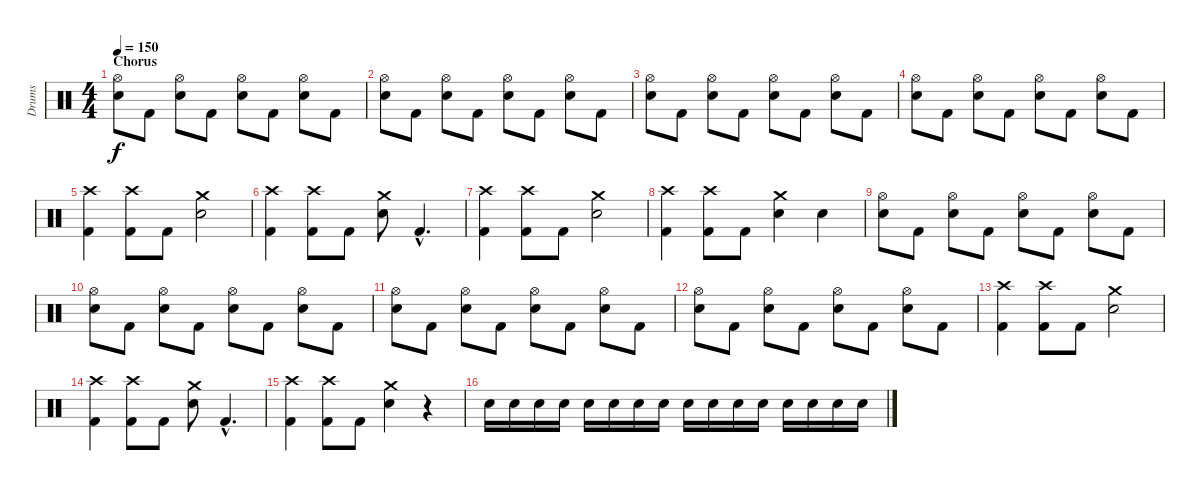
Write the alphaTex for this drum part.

\track ("Drums" "Drums") {instrument percussion}
\staff {score}
\articulation defaults
\ts (4 4)
\section ("" "Chorus")
\tempo 150
\clef neutral
\ks c
("Electric Snare (hit)" "Hi-Hat (open)").8{dy f} "Kick (hit) 2".8 ("Electric Snare (hit)" "Hi-Hat (open)").8 "Kick (hit) 2".8 ("Electric Snare (hit)" "Hi-Hat (open)").8 "Kick (hit) 2".8 ("Electric Snare (hit)" "Hi-Hat (open)").8 "Kick (hit) 2".8 |
("Electric Snare (hit)" "Hi-Hat (open)").8 "Kick (hit) 2".8 ("Electric Snare (hit)" "Hi-Hat (open)").8 "Kick (hit) 2".8 ("Electric Snare (hit)" "Hi-Hat (open)").8 "Kick (hit) 2".8 ("Electric Snare (hit)" "Hi-Hat (open)").8 "Kick (hit) 2".8 |
("Electric Snare (hit)" "Hi-Hat (open)").8 "Kick (hit) 2".8 ("Electric Snare (hit)" "Hi-Hat (open)").8 "Kick (hit) 2".8 ("Electric Snare (hit)" "Hi-Hat (open)").8 "Kick (hit) 2".8 ("Electric Snare (hit)" "Hi-Hat (open)").8 "Kick (hit) 2".8 |
("Electric Snare (hit)" "Hi-Hat (open)").8 "Kick (hit) 2".8 ("Electric Snare (hit)" "Hi-Hat (open)").8 "Kick (hit) 2".8 ("Electric Snare (hit)" "Hi-Hat (open)").8 "Kick (hit) 2".8 ("Electric Snare (hit)" "Hi-Hat (open)").8 "Kick (hit) 2".8 |
("Kick (hit) 2" "Crash high (hit)").4 ("Kick (hit) 2" "Crash high (hit)").8 "Kick (hit) 2".8 ("Electric Snare (hit)" "Crash medium (hit)").2 |
("Kick (hit) 2" "Crash high (hit)").4 ("Kick (hit) 2" "Crash high (hit)").8 "Kick (hit) 2".8 ("Electric Snare (hit)" "Crash medium (hit)").8 "Kick (hit) 2"{hac}.4{d} |
("Kick (hit) 2" "Crash high (hit)").4 ("Kick (hit) 2" "Crash high (hit)").8 "Kick (hit) 2".8 ("Electric Snare (hit)" "Crash medium (hit)").2 |
("Kick (hit) 2" "Crash high (hit)").4 ("Kick (hit) 2" "Crash high (hit)").8 "Kick (hit) 2".8 ("Electric Snare (hit)" "Crash medium (hit)").4 "Electric Snare (hit)".4 |
("Electric Snare (hit)" "Hi-Hat (open)").8 "Kick (hit) 2".8 ("Electric Snare (hit)" "Hi-Hat (open)").8 "Kick (hit) 2".8 ("Electric Snare (hit)" "Hi-Hat (open)").8 "Kick (hit) 2".8 ("Electric Snare (hit)" "Hi-Hat (open)").8 "Kick (hit) 2".8 |
("Electric Snare (hit)" "Hi-Hat (open)").8 "Kick (hit) 2".8 ("Electric Snare (hit)" "Hi-Hat (open)").8 "Kick (hit) 2".8 ("Electric Snare (hit)" "Hi-Hat (open)").8 "Kick (hit) 2".8 ("Electric Snare (hit)" "Hi-Hat (open)").8 "Kick (hit) 2".8 |
("Electric Snare (hit)" "Hi-Hat (open)").8 "Kick (hit) 2".8 ("Electric Snare (hit)" "Hi-Hat (open)").8 "Kick (hit) 2".8 ("Electric Snare (hit)" "Hi-Hat (open)").8 "Kick (hit) 2".8 ("Electric Snare (hit)" "Hi-Hat (open)").8 "Kick (hit) 2".8 |
("Electric Snare (hit)" "Hi-Hat (open)").8 "Kick (hit) 2".8 ("Electric Snare (hit)" "Hi-Hat (open)").8 "Kick (hit) 2".8 ("Electric Snare (hit)" "Hi-Hat (open)").8 "Kick (hit) 2".8 ("Electric Snare (hit)" "Hi-Hat (open)").8 "Kick (hit) 2".8 |
("Kick (hit) 2" "Crash high (hit)").4 ("Kick (hit) 2" "Crash high (hit)").8 "Kick (hit) 2".8 ("Electric Snare (hit)" "Crash medium (hit)").2 |
("Kick (hit) 2" "Crash high (hit)").4 ("Kick (hit) 2" "Crash high (hit)").8 "Kick (hit) 2".8 ("Electric Snare (hit)" "Crash medium (hit)").8 "Kick (hit) 2"{hac}.4{d} |
("Kick (hit) 2" "Crash high (hit)").4 ("Kick (hit) 2" "Crash high (hit)").8 "Kick (hit) 2".8 ("Electric Snare (hit)" "Crash medium (hit)").4 r.4{volume 4} |
"Electric Snare (hit)".16{volume 14} "Electric Snare (hit)".16 "Electric Snare (hit)".16 "Electric Snare (hit)".16 "Electric Snare (hit)".16 "Electric Snare (hit)".16 "Electric Snare (hit)".16 "Electric Snare (hit)".16 "Electric Snare (hit)".16 "Electric Snare (hit)".16 "Electric Snare (hit)".16 "Electric Snare (hit)".16 "Electric Snare (hit)".16 "Electric Snare (hit)".16 "Electric Snare (hit)".16 "Electric Snare (hit)".16
